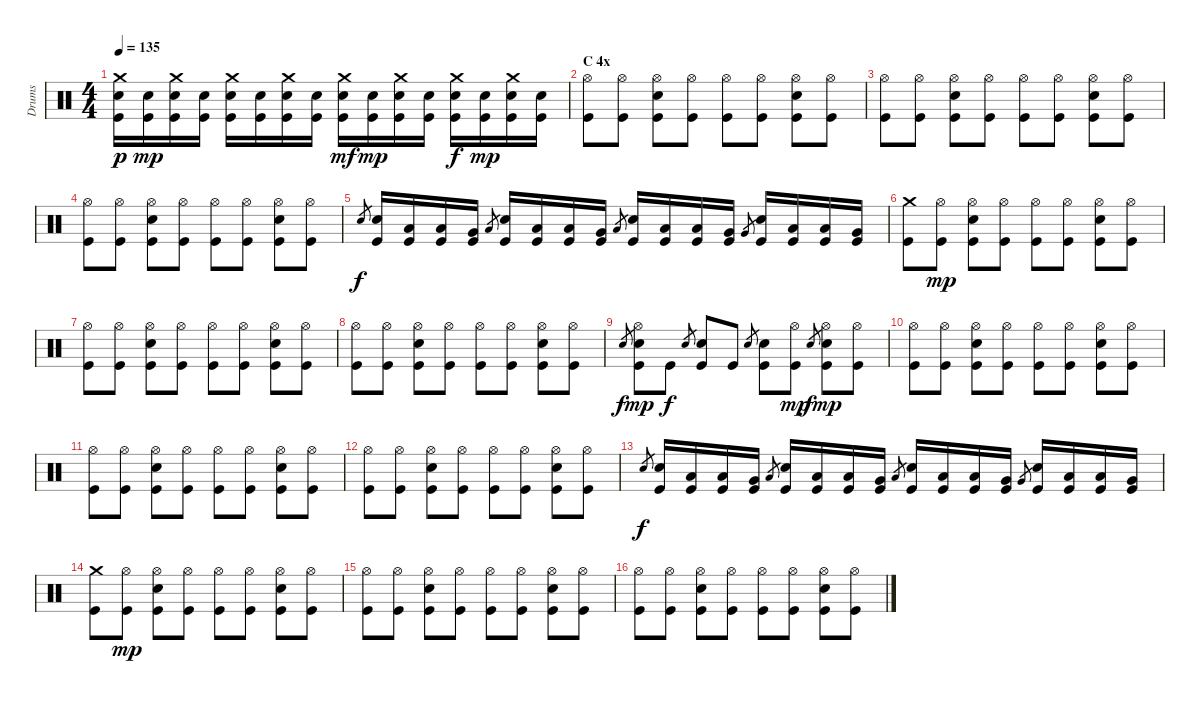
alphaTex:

\track ("Drums" "Drums") {instrument percussion}
\staff {score}
\articulation defaults
\ts (4 4)
\tempo 135
\clef neutral
\ks c
("Crash medium (hit)" "Electric Snare (hit)" "Kick (hit)").16{dy p} ("Electric Snare (hit)" "Kick (hit)").16{dy mp} ("Crash medium (hit)" "Electric Snare (hit)" "Kick (hit)").16 ("Electric Snare (hit)" "Kick (hit)").16 ("Crash medium (hit)" "Electric Snare (hit)" "Kick (hit)").16 ("Electric Snare (hit)" "Kick (hit)").16 ("Crash medium (hit)" "Electric Snare (hit)" "Kick (hit)").16 ("Electric Snare (hit)" "Kick (hit)").16 ("Crash medium (hit)" "Electric Snare (hit)" "Kick (hit)").16{dy mf} ("Electric Snare (hit)" "Kick (hit)").16{dy mp} ("Crash medium (hit)" "Electric Snare (hit)" "Kick (hit)").16 ("Electric Snare (hit)" "Kick (hit)").16 ("Crash medium (hit)" "Electric Snare (hit)" "Kick (hit)").16{dy f} ("Electric Snare (hit)" "Kick (hit)").16{dy mp} ("Crash medium (hit)" "Electric Snare (hit)" "Kick (hit)").16 ("Electric Snare (hit)" "Kick (hit)").16 |
\section ("" "C 4x")
("Hi-Hat (open)" "Kick (hit)").8 ("Hi-Hat (open)" "Kick (hit)").8 ("Hi-Hat (open)" "Electric Snare (hit)" "Kick (hit)").8 ("Hi-Hat (open)" "Kick (hit)").8 ("Hi-Hat (open)" "Kick (hit)").8 ("Hi-Hat (open)" "Kick (hit)").8 ("Hi-Hat (open)" "Electric Snare (hit)" "Kick (hit)").8 ("Hi-Hat (open)" "Kick (hit)").8 |
("Hi-Hat (open)" "Kick (hit)").8 ("Hi-Hat (open)" "Kick (hit)").8 ("Hi-Hat (open)" "Electric Snare (hit)" "Kick (hit)").8 ("Hi-Hat (open)" "Kick (hit)").8 ("Hi-Hat (open)" "Kick (hit)").8 ("Hi-Hat (open)" "Kick (hit)").8 ("Hi-Hat (open)" "Electric Snare (hit)" "Kick (hit)").8 ("Hi-Hat (open)" "Kick (hit)").8 |
("Hi-Hat (open)" "Kick (hit)").8 ("Hi-Hat (open)" "Kick (hit)").8 ("Hi-Hat (open)" "Electric Snare (hit)" "Kick (hit)").8 ("Hi-Hat (open)" "Kick (hit)").8 ("Hi-Hat (open)" "Kick (hit)").8 ("Hi-Hat (open)" "Kick (hit)").8 ("Hi-Hat (open)" "Electric Snare (hit)" "Kick (hit)").8 ("Hi-Hat (open)" "Kick (hit)").8 |
"Electric Snare (hit)".8{gr dy f} ("Electric Snare (hit)" "Kick (hit)").16 ("Low Tom (hit)" "Kick (hit)").16 ("Low Tom (hit)" "Kick (hit)").16 ("Very Low Tom (hit)" "Kick (hit)").16 "Low Tom (hit)".8{gr} ("Electric Snare (hit)" "Kick (hit)").16 ("Low Tom (hit)" "Kick (hit)").16 ("Low Tom (hit)" "Kick (hit)").16 ("Very Low Tom (hit)" "Kick (hit)").16 "Low Tom (hit)".8{gr} ("Electric Snare (hit)" "Kick (hit)").16 ("Low Tom (hit)" "Kick (hit)").16 ("Low Tom (hit)" "Kick (hit)").16 ("Very Low Tom (hit)" "Kick (hit)").16 "Very Low Tom (hit)".8{gr} ("Electric Snare (hit)" "Kick (hit)").16 ("Low Tom (hit)" "Kick (hit)").16 ("Low Tom (hit)" "Kick (hit)").16 ("Very Low Tom (hit)" "Kick (hit)").16 |
("Crash medium (hit)" "Kick (hit)").8 ("Hi-Hat (open)" "Kick (hit)").8{dy mp} ("Hi-Hat (open)" "Electric Snare (hit)" "Kick (hit)").8 ("Hi-Hat (open)" "Kick (hit)").8 ("Hi-Hat (open)" "Kick (hit)").8 ("Hi-Hat (open)" "Kick (hit)").8 ("Hi-Hat (open)" "Electric Snare (hit)" "Kick (hit)").8 ("Hi-Hat (open)" "Kick (hit)").8 |
("Hi-Hat (open)" "Kick (hit)").8 ("Hi-Hat (open)" "Kick (hit)").8 ("Hi-Hat (open)" "Electric Snare (hit)" "Kick (hit)").8 ("Hi-Hat (open)" "Kick (hit)").8 ("Hi-Hat (open)" "Kick (hit)").8 ("Hi-Hat (open)" "Kick (hit)").8 ("Hi-Hat (open)" "Electric Snare (hit)" "Kick (hit)").8 ("Hi-Hat (open)" "Kick (hit)").8 |
("Hi-Hat (open)" "Kick (hit)").8 ("Hi-Hat (open)" "Kick (hit)").8 ("Hi-Hat (open)" "Electric Snare (hit)" "Kick (hit)").8 ("Hi-Hat (open)" "Kick (hit)").8 ("Hi-Hat (open)" "Kick (hit)").8 ("Hi-Hat (open)" "Kick (hit)").8 ("Hi-Hat (open)" "Electric Snare (hit)" "Kick (hit)").8 ("Hi-Hat (open)" "Kick (hit)").8 |
"Electric Snare (hit)".8{gr dy f} ("Hi-Hat (open)" "Electric Snare (hit)" "Kick (hit)").8{dy mp} "Kick (hit)".8{dy f} "Electric Snare (hit)".8{gr} ("Electric Snare (hit)" "Kick (hit)").8 "Kick (hit)".8 "Electric Snare (hit)".8{gr} ("Electric Snare (hit)" "Kick (hit)").8 ("Hi-Hat (open)" "Kick (hit)").8{dy mp} "Electric Snare (hit)".8{gr dy f} ("Hi-Hat (open)" "Electric Snare (hit)" "Kick (hit)").8{dy mp} ("Hi-Hat (open)" "Kick (hit)").8 |
("Hi-Hat (open)" "Kick (hit)").8 ("Hi-Hat (open)" "Kick (hit)").8 ("Hi-Hat (open)" "Electric Snare (hit)" "Kick (hit)").8 ("Hi-Hat (open)" "Kick (hit)").8 ("Hi-Hat (open)" "Kick (hit)").8 ("Hi-Hat (open)" "Kick (hit)").8 ("Hi-Hat (open)" "Electric Snare (hit)" "Kick (hit)").8 ("Hi-Hat (open)" "Kick (hit)").8 |
("Hi-Hat (open)" "Kick (hit)").8 ("Hi-Hat (open)" "Kick (hit)").8 ("Hi-Hat (open)" "Electric Snare (hit)" "Kick (hit)").8 ("Hi-Hat (open)" "Kick (hit)").8 ("Hi-Hat (open)" "Kick (hit)").8 ("Hi-Hat (open)" "Kick (hit)").8 ("Hi-Hat (open)" "Electric Snare (hit)" "Kick (hit)").8 ("Hi-Hat (open)" "Kick (hit)").8 |
("Hi-Hat (open)" "Kick (hit)").8 ("Hi-Hat (open)" "Kick (hit)").8 ("Hi-Hat (open)" "Electric Snare (hit)" "Kick (hit)").8 ("Hi-Hat (open)" "Kick (hit)").8 ("Hi-Hat (open)" "Kick (hit)").8 ("Hi-Hat (open)" "Kick (hit)").8 ("Hi-Hat (open)" "Electric Snare (hit)" "Kick (hit)").8 ("Hi-Hat (open)" "Kick (hit)").8 |
"Electric Snare (hit)".8{gr dy f} ("Electric Snare (hit)" "Kick (hit)").16 ("Low Tom (hit)" "Kick (hit)").16 ("Low Tom (hit)" "Kick (hit)").16 ("Very Low Tom (hit)" "Kick (hit)").16 "Low Tom (hit)".8{gr} ("Electric Snare (hit)" "Kick (hit)").16 ("Low Tom (hit)" "Kick (hit)").16 ("Low Tom (hit)" "Kick (hit)").16 ("Very Low Tom (hit)" "Kick (hit)").16 "Low Tom (hit)".8{gr} ("Electric Snare (hit)" "Kick (hit)").16 ("Low Tom (hit)" "Kick (hit)").16 ("Low Tom (hit)" "Kick (hit)").16 ("Very Low Tom (hit)" "Kick (hit)").16 "Very Low Tom (hit)".8{gr} ("Electric Snare (hit)" "Kick (hit)").16 ("Low Tom (hit)" "Kick (hit)").16 ("Low Tom (hit)" "Kick (hit)").16 ("Very Low Tom (hit)" "Kick (hit)").16 |
("Crash medium (hit)" "Kick (hit)").8 ("Hi-Hat (open)" "Kick (hit)").8{dy mp} ("Hi-Hat (open)" "Electric Snare (hit)" "Kick (hit)").8 ("Hi-Hat (open)" "Kick (hit)").8 ("Hi-Hat (open)" "Kick (hit)").8 ("Hi-Hat (open)" "Kick (hit)").8 ("Hi-Hat (open)" "Electric Snare (hit)" "Kick (hit)").8 ("Hi-Hat (open)" "Kick (hit)").8 |
("Hi-Hat (open)" "Kick (hit)").8 ("Hi-Hat (open)" "Kick (hit)").8 ("Hi-Hat (open)" "Electric Snare (hit)" "Kick (hit)").8 ("Hi-Hat (open)" "Kick (hit)").8 ("Hi-Hat (open)" "Kick (hit)").8 ("Hi-Hat (open)" "Kick (hit)").8 ("Hi-Hat (open)" "Electric Snare (hit)" "Kick (hit)").8 ("Hi-Hat (open)" "Kick (hit)").8 |
("Hi-Hat (open)" "Kick (hit)").8 ("Hi-Hat (open)" "Kick (hit)").8 ("Hi-Hat (open)" "Electric Snare (hit)" "Kick (hit)").8 ("Hi-Hat (open)" "Kick (hit)").8 ("Hi-Hat (open)" "Kick (hit)").8 ("Hi-Hat (open)" "Kick (hit)").8 ("Hi-Hat (open)" "Electric Snare (hit)" "Kick (hit)").8 ("Hi-Hat (open)" "Kick (hit)").8
